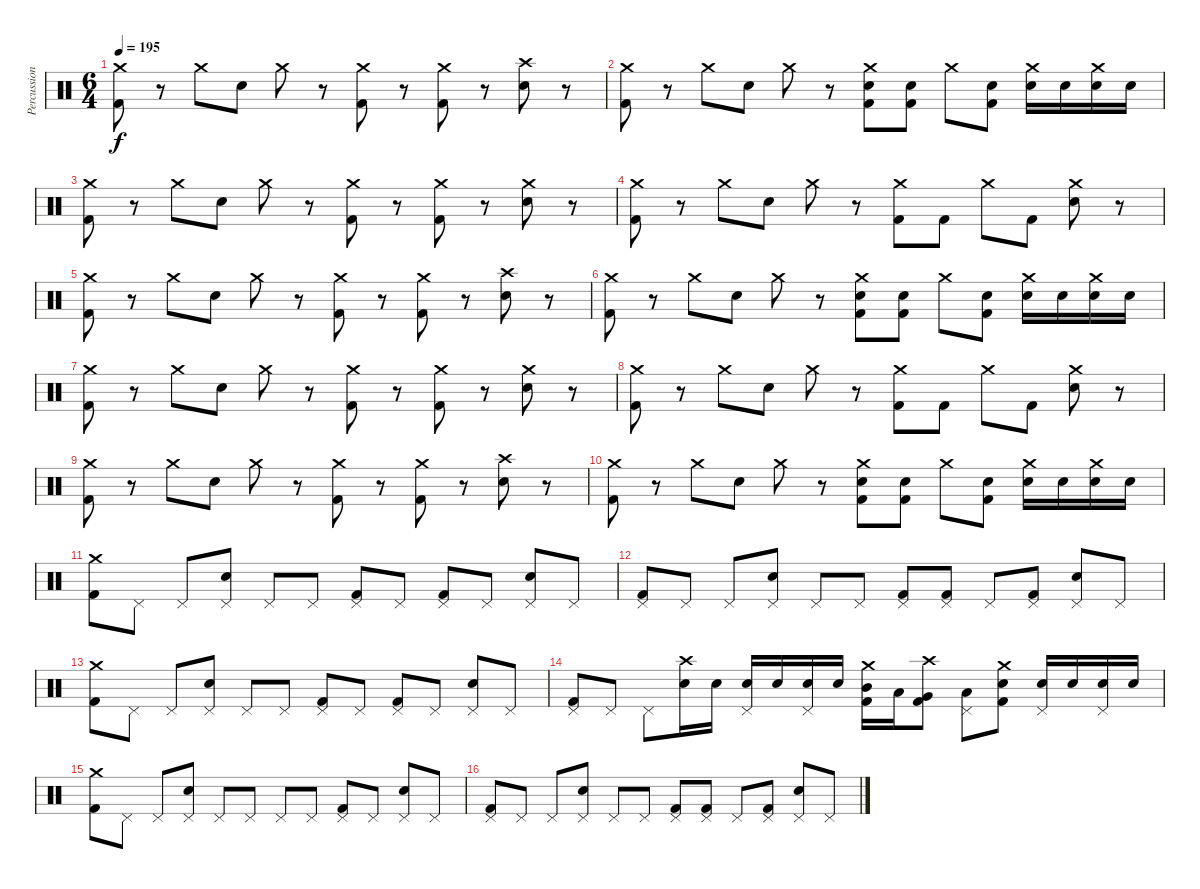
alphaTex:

\track ("Percussion" "Percussion") {instrument percussion}
\staff {score}
\articulation defaults
\ts (6 4)
\tempo 195
\clef neutral
\ks c
("Crash medium (hit)" "Kick (hit) 2").8{dy f} r.8 "Crash medium (hit)".8 "Electric Snare (hit)".8 "Crash medium (hit)".8 r.8 ("Crash medium (hit)" "Kick (hit) 2").8 r.8 ("Crash medium (hit)" "Kick (hit) 2").8 r.8 ("Crash high (hit)" "Electric Snare (hit)").8 r.8 |
("Crash medium (hit)" "Kick (hit) 2").8 r.8 "Crash medium (hit)".8 "Electric Snare (hit)".8 "Crash medium (hit)".8 r.8 ("Crash medium (hit)" "Electric Snare (hit)" "Kick (hit) 2").8 ("Electric Snare (hit)" "Kick (hit) 2").8 "Crash medium (hit)".8 ("Electric Snare (hit)" "Kick (hit) 2").8 ("Crash medium (hit)" "Electric Snare (hit)").16 "Electric Snare (hit)".16 ("Crash medium (hit)" "Electric Snare (hit)").16 "Electric Snare (hit)".16 |
("Crash medium (hit)" "Kick (hit) 2").8 r.8 "Crash medium (hit)".8 "Electric Snare (hit)".8 "Crash medium (hit)".8 r.8 ("Crash medium (hit)" "Kick (hit) 2").8 r.8 ("Crash medium (hit)" "Kick (hit) 2").8 r.8 ("Crash medium (hit)" "Electric Snare (hit)").8 r.8 |
("Crash medium (hit)" "Kick (hit) 2").8 r.8 "Crash medium (hit)".8 "Electric Snare (hit)".8 "Crash medium (hit)".8 r.8 ("Crash medium (hit)" "Kick (hit) 2").8 "Kick (hit) 2".8 "Crash medium (hit)".8 "Kick (hit) 2".8 ("Crash medium (hit)" "Electric Snare (hit)").8 r.8 |
("Crash medium (hit)" "Kick (hit) 2").8 r.8 "Crash medium (hit)".8 "Electric Snare (hit)".8 "Crash medium (hit)".8 r.8 ("Crash medium (hit)" "Kick (hit) 2").8 r.8 ("Crash medium (hit)" "Kick (hit) 2").8 r.8 ("Crash high (hit)" "Electric Snare (hit)").8 r.8 |
("Crash medium (hit)" "Kick (hit) 2").8 r.8 "Crash medium (hit)".8 "Electric Snare (hit)".8 "Crash medium (hit)".8 r.8 ("Crash medium (hit)" "Electric Snare (hit)" "Kick (hit) 2").8 ("Electric Snare (hit)" "Kick (hit) 2").8 "Crash medium (hit)".8 ("Electric Snare (hit)" "Kick (hit) 2").8 ("Crash medium (hit)" "Electric Snare (hit)").16 "Electric Snare (hit)".16 ("Crash medium (hit)" "Electric Snare (hit)").16 "Electric Snare (hit)".16 |
("Crash medium (hit)" "Kick (hit) 2").8 r.8 "Crash medium (hit)".8 "Electric Snare (hit)".8 "Crash medium (hit)".8 r.8 ("Crash medium (hit)" "Kick (hit) 2").8 r.8 ("Crash medium (hit)" "Kick (hit) 2").8 r.8 ("Crash medium (hit)" "Electric Snare (hit)").8 r.8 |
("Crash medium (hit)" "Kick (hit) 2").8 r.8 "Crash medium (hit)".8 "Electric Snare (hit)".8 "Crash medium (hit)".8 r.8 ("Crash medium (hit)" "Kick (hit) 2").8 "Kick (hit) 2".8 "Crash medium (hit)".8 "Kick (hit) 2".8 ("Crash medium (hit)" "Electric Snare (hit)").8 r.8 |
("Crash medium (hit)" "Kick (hit) 2").8 r.8 "Crash medium (hit)".8 "Electric Snare (hit)".8 "Crash medium (hit)".8 r.8 ("Crash medium (hit)" "Kick (hit) 2").8 r.8 ("Crash medium (hit)" "Kick (hit) 2").8 r.8 ("Crash high (hit)" "Electric Snare (hit)").8 r.8 |
("Crash medium (hit)" "Kick (hit) 2").8 r.8 "Crash medium (hit)".8 "Electric Snare (hit)".8 "Crash medium (hit)".8 r.8 ("Crash medium (hit)" "Electric Snare (hit)" "Kick (hit) 2").8 ("Electric Snare (hit)" "Kick (hit) 2").8 "Crash medium (hit)".8 ("Electric Snare (hit)" "Kick (hit) 2").8 ("Crash medium (hit)" "Electric Snare (hit)").16 "Electric Snare (hit)".16 ("Crash medium (hit)" "Electric Snare (hit)").16 "Electric Snare (hit)".16 |
("Crash medium (hit)" "Kick (hit) 2").8 "Pedal Hi-Hat (hit)".8 "Pedal Hi-Hat (hit)".8 ("Pedal Hi-Hat (hit)" "Electric Snare (hit)").8 "Pedal Hi-Hat (hit)".8 "Pedal Hi-Hat (hit)".8 ("Pedal Hi-Hat (hit)" "Kick (hit) 2").8 "Pedal Hi-Hat (hit)".8 ("Pedal Hi-Hat (hit)" "Kick (hit) 2").8 "Pedal Hi-Hat (hit)".8 ("Pedal Hi-Hat (hit)" "Electric Snare (hit)").8 "Pedal Hi-Hat (hit)".8 |
("Pedal Hi-Hat (hit)" "Kick (hit) 2").8 "Pedal Hi-Hat (hit)".8 "Pedal Hi-Hat (hit)".8 ("Pedal Hi-Hat (hit)" "Electric Snare (hit)").8 "Pedal Hi-Hat (hit)".8 "Pedal Hi-Hat (hit)".8 ("Pedal Hi-Hat (hit)" "Kick (hit) 2").8 ("Pedal Hi-Hat (hit)" "Kick (hit) 2").8 "Pedal Hi-Hat (hit)".8 ("Pedal Hi-Hat (hit)" "Kick (hit) 2").8 ("Pedal Hi-Hat (hit)" "Electric Snare (hit)").8 "Pedal Hi-Hat (hit)".8 |
("Crash medium (hit)" "Kick (hit) 2").8 "Pedal Hi-Hat (hit)".8 "Pedal Hi-Hat (hit)".8 ("Pedal Hi-Hat (hit)" "Electric Snare (hit)").8 "Pedal Hi-Hat (hit)".8 "Pedal Hi-Hat (hit)".8 ("Pedal Hi-Hat (hit)" "Kick (hit) 2").8 "Pedal Hi-Hat (hit)".8 ("Pedal Hi-Hat (hit)" "Kick (hit) 2").8 "Pedal Hi-Hat (hit)".8 ("Pedal Hi-Hat (hit)" "Electric Snare (hit)").8 "Pedal Hi-Hat (hit)".8 |
("Pedal Hi-Hat (hit)" "Kick (hit) 2").8 "Pedal Hi-Hat (hit)".8 "Pedal Hi-Hat (hit)".8 ("Crash high (hit)" "Electric Snare (hit)").16 "Electric Snare (hit)".16 ("Pedal Hi-Hat (hit)" "Electric Snare (hit)").16 "Electric Snare (hit)".16 ("Pedal Hi-Hat (hit)" "Electric Snare (hit)").16 "Electric Snare (hit)".16 ("Crash medium (hit)" "Mid Tom (hit)" "Kick (hit) 2").16 "Low Tom (hit)".16 ("Crash high (hit)" "Very Low Tom (hit)" "Kick (hit) 2").8 ("Pedal Hi-Hat (hit)" "Low Floor Tom (hit)").8 ("Crash medium (hit)" "Electric Snare (hit)" "Kick (hit) 2").8 ("Pedal Hi-Hat (hit)" "Electric Snare (hit)").16 "Electric Snare (hit)".16 ("Pedal Hi-Hat (hit)" "Electric Snare (hit)").16 "Electric Snare (hit)".16 |
("Crash medium (hit)" "Kick (hit) 2").8 "Pedal Hi-Hat (hit)".8 "Pedal Hi-Hat (hit)".8 ("Pedal Hi-Hat (hit)" "Electric Snare (hit)").8 "Pedal Hi-Hat (hit)".8 "Pedal Hi-Hat (hit)".8 "Pedal Hi-Hat (hit)".8 "Pedal Hi-Hat (hit)".8 ("Pedal Hi-Hat (hit)" "Kick (hit) 2").8 "Pedal Hi-Hat (hit)".8 ("Pedal Hi-Hat (hit)" "Electric Snare (hit)").8 "Pedal Hi-Hat (hit)".8 |
("Pedal Hi-Hat (hit)" "Kick (hit) 2").8 "Pedal Hi-Hat (hit)".8 "Pedal Hi-Hat (hit)".8 ("Pedal Hi-Hat (hit)" "Electric Snare (hit)").8 "Pedal Hi-Hat (hit)".8 "Pedal Hi-Hat (hit)".8 ("Pedal Hi-Hat (hit)" "Kick (hit) 2").8 ("Pedal Hi-Hat (hit)" "Kick (hit) 2").8 "Pedal Hi-Hat (hit)".8 ("Pedal Hi-Hat (hit)" "Kick (hit) 2").8 ("Pedal Hi-Hat (hit)" "Electric Snare (hit)").8 "Pedal Hi-Hat (hit)".8
